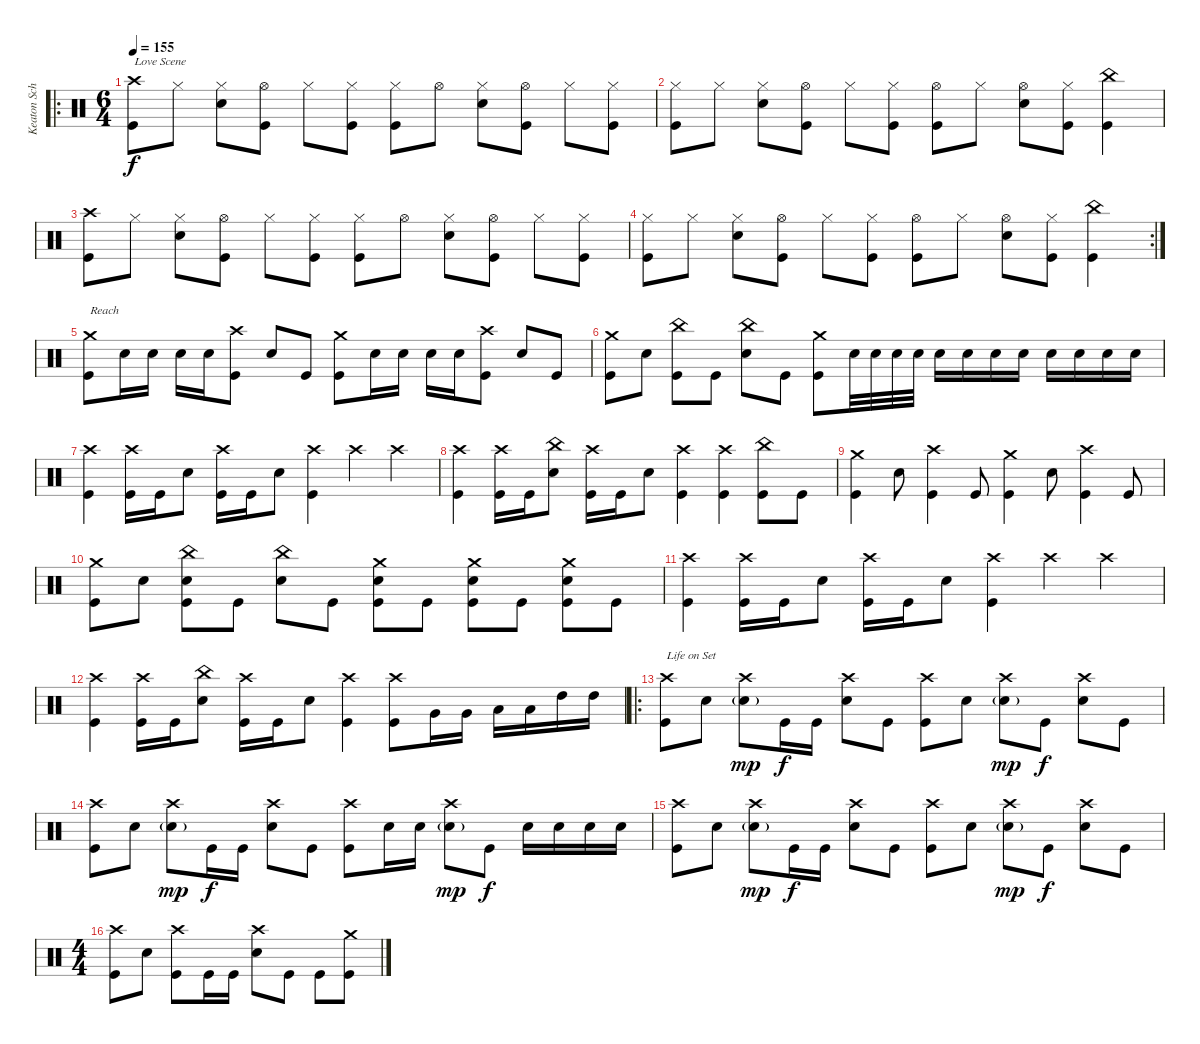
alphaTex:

\track ("Keaton Schluchter Drums" "Keaton Sch") {instrument percussion bank 20}
\staff {score}
\articulation defaults
\ro
\ts (6 4)
\tempo 155
\clef neutral
\ks c
("Crash high (hit)" "Kick (hit)").8{txt "Love Scene" dy f} "Hi-Hat (closed)".8 ("Hi-Hat (closed)" "Electric Snare (hit)").8 ("Hi-Hat (open)" "Kick (hit)").8 "Hi-Hat (closed)".8 ("Hi-Hat (closed)" "Kick (hit)").8 ("Hi-Hat (closed)" "Kick (hit)").8 "Hi-Hat (open)".8 ("Hi-Hat (closed)" "Electric Snare (hit)").8 ("Hi-Hat (open)" "Kick (hit)").8 "Hi-Hat (closed)".8 ("Hi-Hat (closed)" "Kick (hit)").8 |
("Hi-Hat (closed)" "Kick (hit)").8 "Hi-Hat (closed)".8 ("Hi-Hat (closed)" "Electric Snare (hit)").8 ("Hi-Hat (open)" "Kick (hit)").8 "Hi-Hat (closed)".8 ("Hi-Hat (closed)" "Kick (hit)").8 ("Hi-Hat (open)" "Kick (hit)").8 "Hi-Hat (closed)".8 ("Hi-Hat (open)" "Electric Snare (hit)").8 ("Hi-Hat (closed)" "Kick (hit)").8 ("China (hit)" "Kick (hit)").4 |
("Crash high (hit)" "Kick (hit)").8 "Hi-Hat (closed)".8 ("Hi-Hat (closed)" "Electric Snare (hit)").8 ("Hi-Hat (open)" "Kick (hit)").8 "Hi-Hat (closed)".8 ("Hi-Hat (closed)" "Kick (hit)").8 ("Hi-Hat (closed)" "Kick (hit)").8 "Hi-Hat (open)".8 ("Hi-Hat (closed)" "Electric Snare (hit)").8 ("Hi-Hat (open)" "Kick (hit)").8 "Hi-Hat (closed)".8 ("Hi-Hat (closed)" "Kick (hit)").8 |
\rc 2
("Hi-Hat (closed)" "Kick (hit)").8 "Hi-Hat (closed)".8 ("Hi-Hat (closed)" "Electric Snare (hit)").8 ("Hi-Hat (open)" "Kick (hit)").8 "Hi-Hat (closed)".8 ("Hi-Hat (closed)" "Kick (hit)").8 ("Hi-Hat (open)" "Kick (hit)").8 "Hi-Hat (closed)".8 ("Hi-Hat (open)" "Electric Snare (hit)").8 ("Hi-Hat (closed)" "Kick (hit)").8 ("China (hit)" "Kick (hit)").4 |
("Crash medium (hit)" "Kick (hit)").8{txt "Reach"} "Electric Snare (hit)".16 "Electric Snare (hit)".16 "Electric Snare (hit)".16 "Electric Snare (hit)".16 ("Crash high (hit)" "Kick (hit)").8 "Electric Snare (hit)".8 "Kick (hit)".8 ("Crash medium (hit)" "Kick (hit)").8 "Electric Snare (hit)".16 "Electric Snare (hit)".16 "Electric Snare (hit)".16 "Electric Snare (hit)".16 ("Crash high (hit)" "Kick (hit)").8 "Electric Snare (hit)".8 "Kick (hit)".8 |
("Crash medium (hit)" "Kick (hit)").8 "Electric Snare (hit)".8 ("China (hit)" "Kick (hit)").8 "Kick (hit)".8 ("China (hit)" "Electric Snare (hit)").8 "Kick (hit)".8 ("Crash medium (hit)" "Kick (hit)").8 "Electric Snare (hit)".32 "Electric Snare (hit)".32 "Electric Snare (hit)".32 "Electric Snare (hit)".32 "Electric Snare (hit)".16 "Electric Snare (hit)".16 "Electric Snare (hit)".16 "Electric Snare (hit)".16 "Electric Snare (hit)".16 "Electric Snare (hit)".16 "Electric Snare (hit)".16 "Electric Snare (hit)".16 |
("Crash high (hit)" "Kick (hit)").4 ("Crash high (hit)" "Kick (hit)").16 "Kick (hit)".16 "Electric Snare (hit)".8 ("Crash high (hit)" "Kick (hit)").16 "Kick (hit)".16 "Electric Snare (hit)".8 ("Crash high (hit)" "Kick (hit)").4 "Crash high (hit)".4 "Crash high (hit)".4 |
("Crash high (hit)" "Kick (hit)").4 ("Crash high (hit)" "Kick (hit)").16 "Kick (hit)".16 ("China (hit)" "Electric Snare (hit)").8 ("Crash high (hit)" "Kick (hit)").16 "Kick (hit)".16 "Electric Snare (hit)".8 ("Crash high (hit)" "Kick (hit)").4 ("Crash high (hit)" "Kick (hit)").4 ("China (hit)" "Kick (hit)").8 "Kick (hit)".8 |
("Crash medium (hit)" "Kick (hit)").4 "Electric Snare (hit)".8 ("Crash high (hit)" "Kick (hit)").4 "Kick (hit)".8 ("Crash medium (hit)" "Kick (hit)").4 "Electric Snare (hit)".8 ("Crash high (hit)" "Kick (hit)").4 "Kick (hit)".8 |
("Crash medium (hit)" "Kick (hit)").8 "Electric Snare (hit)".8 ("China (hit)" "Electric Snare (hit)" "Kick (hit)").8 "Kick (hit)".8 ("China (hit)" "Electric Snare (hit)").8 "Kick (hit)".8 ("Crash medium (hit)" "Electric Snare (hit)" "Kick (hit)").8 "Kick (hit)".8 ("Crash medium (hit)" "Electric Snare (hit)" "Kick (hit)").8 "Kick (hit)".8 ("Crash medium (hit)" "Electric Snare (hit)" "Kick (hit)").8 "Kick (hit)".8 |
("Crash high (hit)" "Kick (hit)").4 ("Crash high (hit)" "Kick (hit)").16 "Kick (hit)".16 "Electric Snare (hit)".8 ("Crash high (hit)" "Kick (hit)").16 "Kick (hit)".16 "Electric Snare (hit)".8 ("Crash high (hit)" "Kick (hit)").4 "Crash high (hit)".4 "Crash high (hit)".4 |
("Crash high (hit)" "Kick (hit)").4 ("Crash high (hit)" "Kick (hit)").16 "Kick (hit)".16 ("China (hit)" "Electric Snare (hit)").8 ("Crash high (hit)" "Kick (hit)").16 "Kick (hit)".16 "Electric Snare (hit)".8 ("Crash high (hit)" "Kick (hit)").4 ("Crash high (hit)" "Kick (hit)").8 "Very Low Tom (hit)".16 "Very Low Tom (hit)".16 "Low Tom (hit)".16 "Low Tom (hit)".16 "High Tom (hit)".16 "High Tom (hit)".16 |
\ro
("Crash high (hit)" "Kick (hit)").8{txt "Life on Set"} "Electric Snare (hit)".8 ("Crash high (hit)" "Electric Snare (hit)"{g}).8{dy mp} "Kick (hit)".16{dy f} "Kick (hit)".16 ("Crash high (hit)" "Electric Snare (hit)").8 "Kick (hit)".8 ("Crash high (hit)" "Kick (hit)").8 "Electric Snare (hit)".8 ("Crash high (hit)" "Electric Snare (hit)"{g}).8{dy mp} "Kick (hit)".8{dy f} ("Crash high (hit)" "Electric Snare (hit)").8 "Kick (hit)".8 |
("Crash high (hit)" "Kick (hit)").8 "Electric Snare (hit)".8 ("Crash high (hit)" "Electric Snare (hit)"{g}).8{dy mp} "Kick (hit)".16{dy f} "Kick (hit)".16 ("Crash high (hit)" "Electric Snare (hit)").8 "Kick (hit)".8 ("Crash high (hit)" "Kick (hit)").8 "Electric Snare (hit)".16 "Electric Snare (hit)".16 ("Crash high (hit)" "Electric Snare (hit)"{g}).8{dy mp} "Kick (hit)".8{dy f} "Electric Snare (hit)".16 "Electric Snare (hit)".16 "Electric Snare (hit)".16 "Electric Snare (hit)".16 |
("Crash high (hit)" "Kick (hit)").8 "Electric Snare (hit)".8 ("Crash high (hit)" "Electric Snare (hit)"{g}).8{dy mp} "Kick (hit)".16{dy f} "Kick (hit)".16 ("Crash high (hit)" "Electric Snare (hit)").8 "Kick (hit)".8 ("Crash high (hit)" "Kick (hit)").8 "Electric Snare (hit)".8 ("Crash high (hit)" "Electric Snare (hit)"{g}).8{dy mp} "Kick (hit)".8{dy f} ("Crash high (hit)" "Electric Snare (hit)").8 "Kick (hit)".8 |
\ts (4 4)
("Crash high (hit)" "Kick (hit)").8 "Electric Snare (hit)".8 ("Crash high (hit)" "Kick (hit)").8 "Kick (hit)".16 "Kick (hit)".16 ("Crash high (hit)" "Electric Snare (hit)").8 "Kick (hit)".8 "Kick (hit)".8 ("Crash medium (hit)" "Kick (hit)").8
